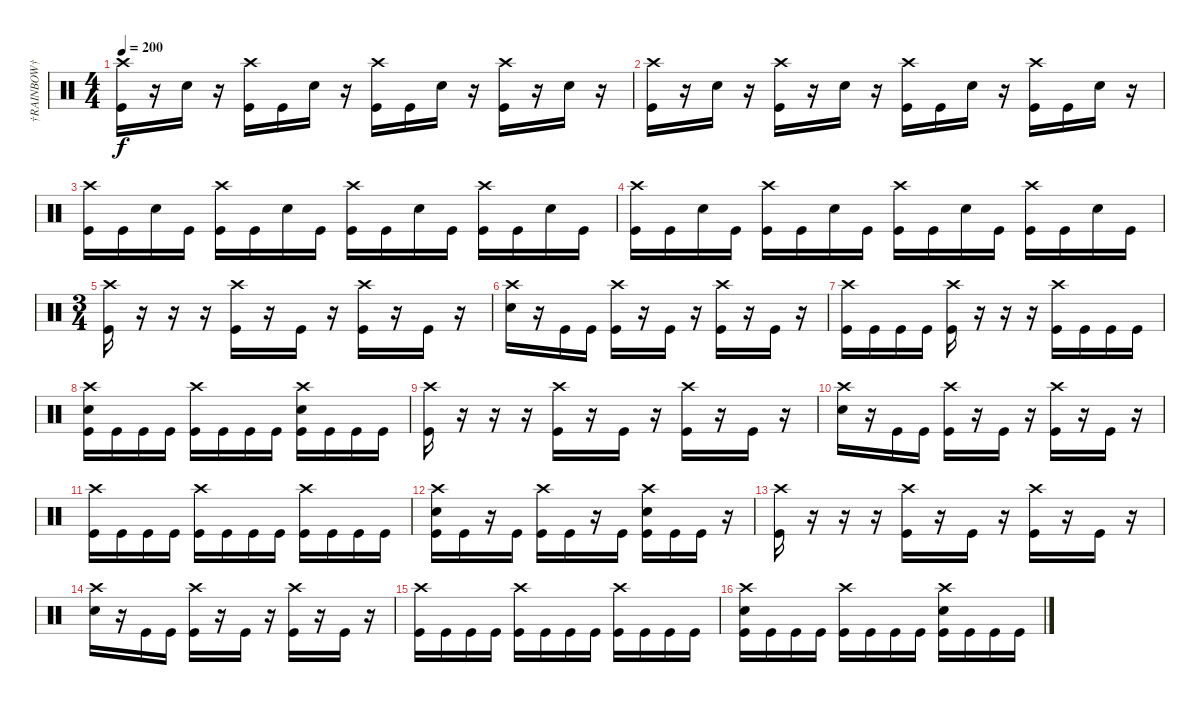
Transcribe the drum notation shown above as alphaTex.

\track ("†RAINBOW†" "†RAINBOW†") {instrument percussion}
\staff {score}
\articulation defaults
\ts (4 4)
\tempo 200
\clef neutral
\ks c
("Crash high (hit)" "Kick (hit)").16{dy f} r.16 "Electric Snare (hit)".16 r.16 ("Crash high (hit)" "Kick (hit)").16 "Kick (hit)".16 "Electric Snare (hit)".16 r.16 ("Crash high (hit)" "Kick (hit)").16 "Kick (hit)".16 "Electric Snare (hit)".16 r.16 ("Crash high (hit)" "Kick (hit)").16 r.16 "Electric Snare (hit)".16 r.16 |
("Crash high (hit)" "Kick (hit)").16 r.16 "Electric Snare (hit)".16 r.16 ("Crash high (hit)" "Kick (hit)").16 r.16 "Electric Snare (hit)".16 r.16 ("Crash high (hit)" "Kick (hit)").16 "Kick (hit)".16 "Electric Snare (hit)".16 r.16 ("Crash high (hit)" "Kick (hit)").16 "Kick (hit)".16 "Electric Snare (hit)".16 r.16 |
("Crash high (hit)" "Kick (hit)").16 "Kick (hit)".16 "Electric Snare (hit)".16 "Kick (hit)".16 ("Crash high (hit)" "Kick (hit)").16 "Kick (hit)".16 "Electric Snare (hit)".16 "Kick (hit)".16 ("Crash high (hit)" "Kick (hit)").16 "Kick (hit)".16 "Electric Snare (hit)".16 "Kick (hit)".16 ("Crash high (hit)" "Kick (hit)").16 "Kick (hit)".16 "Electric Snare (hit)".16 "Kick (hit)".16 |
("Crash high (hit)" "Kick (hit)").16 "Kick (hit)".16 "Electric Snare (hit)".16 "Kick (hit)".16 ("Crash high (hit)" "Kick (hit)").16 "Kick (hit)".16 "Electric Snare (hit)".16 "Kick (hit)".16 ("Crash high (hit)" "Kick (hit)").16 "Kick (hit)".16 "Electric Snare (hit)".16 "Kick (hit)".16 ("Crash high (hit)" "Kick (hit)").16 "Kick (hit)".16 "Electric Snare (hit)".16 "Kick (hit)".16 |
\ts (3 4)
("Crash high (hit)" "Kick (hit)").16 r.16 r.16 r.16 ("Crash high (hit)" "Kick (hit)").16 r.16 "Kick (hit)".16 r.16 ("Crash high (hit)" "Kick (hit)").16 r.16 "Kick (hit)".16 r.16 |
("Crash high (hit)" "Electric Snare (hit)").16 r.16 "Kick (hit)".16 "Kick (hit)".16 ("Crash high (hit)" "Kick (hit)").16 r.16 "Kick (hit)".16 r.16 ("Crash high (hit)" "Kick (hit)").16 r.16 "Kick (hit)".16 r.16 |
("Crash high (hit)" "Kick (hit)").16 "Kick (hit)".16 "Kick (hit)".16 "Kick (hit)".16 ("Crash high (hit)" "Kick (hit)").16 r.16 r.16 r.16 ("Crash high (hit)" "Kick (hit)").16 "Kick (hit)".16 "Kick (hit)".16 "Kick (hit)".16 |
("Crash high (hit)" "Electric Snare (hit)" "Kick (hit)").16 "Kick (hit)".16 "Kick (hit)".16 "Kick (hit)".16 ("Crash high (hit)" "Kick (hit)").16 "Kick (hit)".16 "Kick (hit)".16 "Kick (hit)".16 ("Crash high (hit)" "Electric Snare (hit)" "Kick (hit)").16 "Kick (hit)".16 "Kick (hit)".16 "Kick (hit)".16 |
("Crash high (hit)" "Kick (hit)").16 r.16 r.16 r.16 ("Crash high (hit)" "Kick (hit)").16 r.16 "Kick (hit)".16 r.16 ("Crash high (hit)" "Kick (hit)").16 r.16 "Kick (hit)".16 r.16 |
("Crash high (hit)" "Electric Snare (hit)").16 r.16 "Kick (hit)".16 "Kick (hit)".16 ("Crash high (hit)" "Kick (hit)").16 r.16 "Kick (hit)".16 r.16 ("Crash high (hit)" "Kick (hit)").16 r.16 "Kick (hit)".16 r.16 |
("Crash high (hit)" "Kick (hit)").16 "Kick (hit)".16 "Kick (hit)".16 "Kick (hit)".16 ("Crash high (hit)" "Kick (hit)").16 "Kick (hit)".16 "Kick (hit)".16 "Kick (hit)".16 ("Crash high (hit)" "Kick (hit)").16 "Kick (hit)".16 "Kick (hit)".16 "Kick (hit)".16 |
("Crash high (hit)" "Electric Snare (hit)" "Kick (hit)").16 "Kick (hit)".16 r.16 "Kick (hit)".16 ("Crash high (hit)" "Kick (hit)").16 "Kick (hit)".16 r.16 "Kick (hit)".16 ("Crash high (hit)" "Electric Snare (hit)" "Kick (hit)").16 "Kick (hit)".16 "Kick (hit)".16 r.16 |
("Crash high (hit)" "Kick (hit)").16 r.16 r.16 r.16 ("Crash high (hit)" "Kick (hit)").16 r.16 "Kick (hit)".16 r.16 ("Crash high (hit)" "Kick (hit)").16 r.16 "Kick (hit)".16 r.16 |
("Crash high (hit)" "Electric Snare (hit)").16 r.16 "Kick (hit)".16 "Kick (hit)".16 ("Crash high (hit)" "Kick (hit)").16 r.16 "Kick (hit)".16 r.16 ("Crash high (hit)" "Kick (hit)").16 r.16 "Kick (hit)".16 r.16 |
("Crash high (hit)" "Kick (hit)").16 "Kick (hit)".16 "Kick (hit)".16 "Kick (hit)".16 ("Crash high (hit)" "Kick (hit)").16 "Kick (hit)".16 "Kick (hit)".16 "Kick (hit)".16 ("Crash high (hit)" "Kick (hit)").16 "Kick (hit)".16 "Kick (hit)".16 "Kick (hit)".16 |
("Crash high (hit)" "Electric Snare (hit)" "Kick (hit)").16 "Kick (hit)".16 "Kick (hit)".16 "Kick (hit)".16 ("Crash high (hit)" "Kick (hit)").16 "Kick (hit)".16 "Kick (hit)".16 "Kick (hit)".16 ("Crash high (hit)" "Electric Snare (hit)" "Kick (hit)").16 "Kick (hit)".16 "Kick (hit)".16 "Kick (hit)".16
